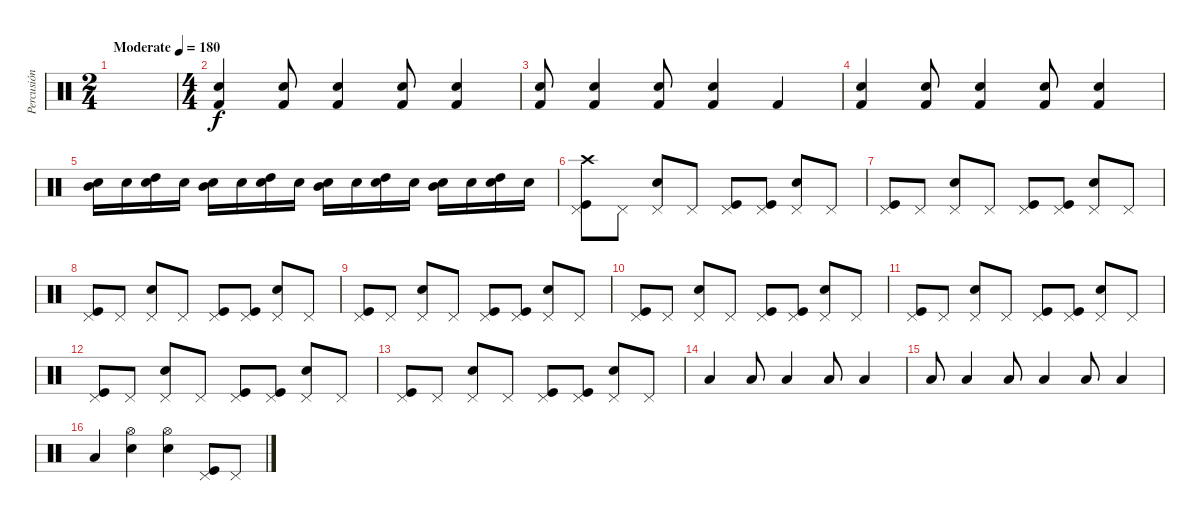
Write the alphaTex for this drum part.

\track ("Percusión" "Percusión") {instrument percussion}
\staff {score}
\articulation defaults
\ts (2 4)
\tempo (180 "Moderate")
\clef neutral
\ks c
|
\ts (4 4)
("Snare (hit) 2" "Kick (hit) 2").4 ("Snare (hit) 2" "Kick (hit) 2").8 ("Snare (hit) 2" "Kick (hit) 2").4 ("Snare (hit) 2" "Kick (hit) 2").8 ("Snare (hit) 2" "Kick (hit) 2").4 |
("Snare (hit) 2" "Kick (hit) 2").8 ("Snare (hit) 2" "Kick (hit) 2").4 ("Snare (hit) 2" "Kick (hit) 2").8 ("Snare (hit) 2" "Kick (hit) 2").4 "Kick (hit) 2".4 |
("Snare (hit) 2" "Kick (hit) 2").4 ("Snare (hit) 2" "Kick (hit) 2").8 ("Snare (hit) 2" "Kick (hit) 2").4 ("Snare (hit) 2" "Kick (hit) 2").8 ("Snare (hit) 2" "Kick (hit) 2").4 |
("Mid Tom (hit)" "Snare (hit) 2").16 "Snare (hit) 2".16 ("High Tom (hit)" "Snare (hit) 2").16 "Snare (hit) 2".16 ("Mid Tom (hit)" "Snare (hit) 2").16 "Snare (hit) 2".16 ("High Tom (hit)" "Snare (hit) 2").16 "Snare (hit) 2".16 ("Mid Tom (hit)" "Snare (hit) 2").16 "Snare (hit) 2".16 ("High Tom (hit)" "Snare (hit) 2").16 "Snare (hit) 2".16 ("Mid Tom (hit)" "Snare (hit) 2").16 "Snare (hit) 2".16 ("High Tom (hit)" "Snare (hit) 2").16 "Snare (hit) 2".16 |
("Crash high (hit)" "Kick (hit)" "Pedal Hi-Hat (hit)").8 "Pedal Hi-Hat (hit)".8 ("Snare (hit) 2" "Pedal Hi-Hat (hit)").8 "Pedal Hi-Hat (hit)".8 ("Kick (hit)" "Pedal Hi-Hat (hit)").8 ("Kick (hit)" "Pedal Hi-Hat (hit)").8 ("Snare (hit) 2" "Pedal Hi-Hat (hit)").8 "Pedal Hi-Hat (hit)".8 |
("Kick (hit)" "Pedal Hi-Hat (hit)").8 "Pedal Hi-Hat (hit)".8 ("Snare (hit) 2" "Pedal Hi-Hat (hit)").8 "Pedal Hi-Hat (hit)".8 ("Kick (hit)" "Pedal Hi-Hat (hit)").8 ("Kick (hit)" "Pedal Hi-Hat (hit)").8 ("Snare (hit) 2" "Pedal Hi-Hat (hit)").8 "Pedal Hi-Hat (hit)".8 |
("Kick (hit)" "Pedal Hi-Hat (hit)").8 "Pedal Hi-Hat (hit)".8 ("Snare (hit) 2" "Pedal Hi-Hat (hit)").8 "Pedal Hi-Hat (hit)".8 ("Kick (hit)" "Pedal Hi-Hat (hit)").8 ("Kick (hit)" "Pedal Hi-Hat (hit)").8 ("Snare (hit) 2" "Pedal Hi-Hat (hit)").8 "Pedal Hi-Hat (hit)".8 |
("Kick (hit)" "Pedal Hi-Hat (hit)").8 "Pedal Hi-Hat (hit)".8 ("Snare (hit) 2" "Pedal Hi-Hat (hit)").8 "Pedal Hi-Hat (hit)".8 ("Kick (hit)" "Pedal Hi-Hat (hit)").8 ("Kick (hit)" "Pedal Hi-Hat (hit)").8 ("Snare (hit) 2" "Pedal Hi-Hat (hit)").8 "Pedal Hi-Hat (hit)".8 |
("Kick (hit)" "Pedal Hi-Hat (hit)").8 "Pedal Hi-Hat (hit)".8 ("Snare (hit) 2" "Pedal Hi-Hat (hit)").8 "Pedal Hi-Hat (hit)".8 ("Kick (hit)" "Pedal Hi-Hat (hit)").8 ("Kick (hit)" "Pedal Hi-Hat (hit)").8 ("Snare (hit) 2" "Pedal Hi-Hat (hit)").8 "Pedal Hi-Hat (hit)".8 |
("Kick (hit)" "Pedal Hi-Hat (hit)").8 "Pedal Hi-Hat (hit)".8 ("Snare (hit) 2" "Pedal Hi-Hat (hit)").8 "Pedal Hi-Hat (hit)".8 ("Kick (hit)" "Pedal Hi-Hat (hit)").8 ("Kick (hit)" "Pedal Hi-Hat (hit)").8 ("Snare (hit) 2" "Pedal Hi-Hat (hit)").8 "Pedal Hi-Hat (hit)".8 |
("Kick (hit)" "Pedal Hi-Hat (hit)").8 "Pedal Hi-Hat (hit)".8 ("Snare (hit) 2" "Pedal Hi-Hat (hit)").8 "Pedal Hi-Hat (hit)".8 ("Kick (hit)" "Pedal Hi-Hat (hit)").8 ("Kick (hit)" "Pedal Hi-Hat (hit)").8 ("Snare (hit) 2" "Pedal Hi-Hat (hit)").8 "Pedal Hi-Hat (hit)".8 |
("Kick (hit)" "Pedal Hi-Hat (hit)").8 "Pedal Hi-Hat (hit)".8 ("Snare (hit) 2" "Pedal Hi-Hat (hit)").8 "Pedal Hi-Hat (hit)".8 ("Kick (hit)" "Pedal Hi-Hat (hit)").8 ("Kick (hit)" "Pedal Hi-Hat (hit)").8 ("Snare (hit) 2" "Pedal Hi-Hat (hit)").8 "Pedal Hi-Hat (hit)".8 |
"Low Floor Tom (hit)".4 "Low Floor Tom (hit)".8 "Low Floor Tom (hit)".4 "Low Floor Tom (hit)".8 "Low Floor Tom (hit)".4 |
"Low Floor Tom (hit)".8 "Low Floor Tom (hit)".4 "Low Floor Tom (hit)".8 "Low Floor Tom (hit)".4 "Low Floor Tom (hit)".8 "Low Floor Tom (hit)".4 |
"Low Floor Tom (hit)".4 ("Snare (hit) 2" "Hi-Hat (open)").4 ("Snare (hit) 2" "Hi-Hat (open)").4 ("Kick (hit)" "Pedal Hi-Hat (hit)").8 "Pedal Hi-Hat (hit)".8
